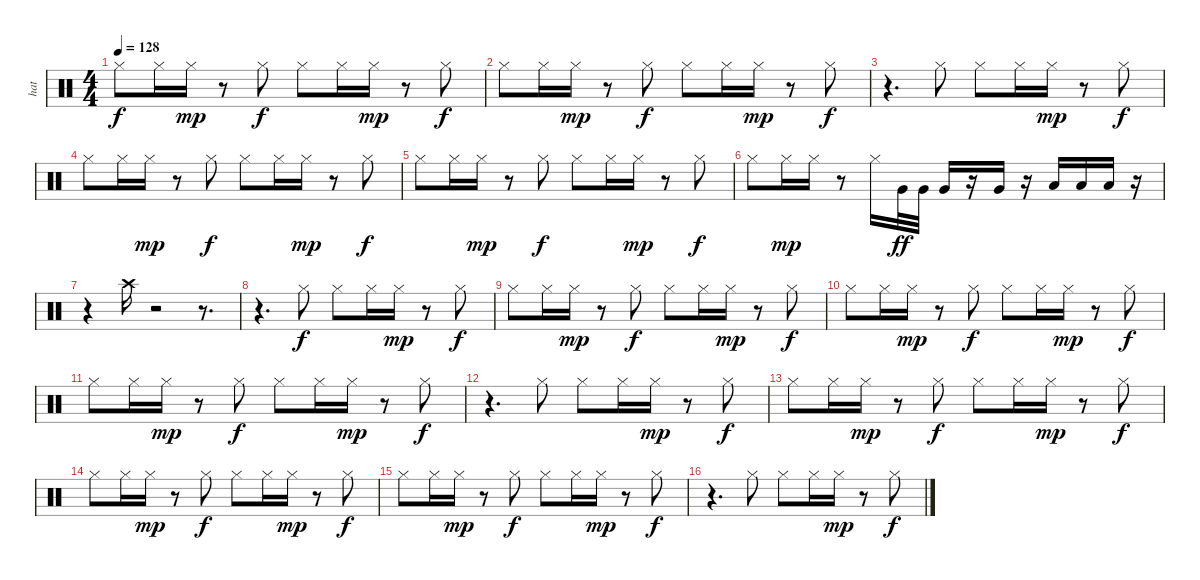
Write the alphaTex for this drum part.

\track ("hat" "hat") {instrument percussion}
\staff {score}
\articulation defaults
\ts (4 4)
\tempo 128
\clef neutral
\ks c "Hi-Hat (closed)".8{dy f} "Hi-Hat (closed)".16 "Hi-Hat (closed)".16{dy mp}
r.8 "Hi-Hat (closed)".8{dy f} "Hi-Hat (closed)".8 "Hi-Hat (closed)".16 "Hi-Hat (closed)".16{dy mp} r.8 "Hi-Hat (closed)".8{dy f} |
"Hi-Hat (closed)".8 "Hi-Hat (closed)".16 "Hi-Hat (closed)".16{dy mp} r.8 "Hi-Hat (closed)".8{dy f} "Hi-Hat (closed)".8 "Hi-Hat (closed)".16 "Hi-Hat (closed)".16{dy mp} r.8 "Hi-Hat (closed)".8{dy f} |
r.4{d} "Hi-Hat (closed)".8 "Hi-Hat (closed)".8 "Hi-Hat (closed)".16 "Hi-Hat (closed)".16{dy mp} r.8 "Hi-Hat (closed)".8{dy f} |
"Hi-Hat (closed)".8 "Hi-Hat (closed)".16 "Hi-Hat (closed)".16{dy mp} r.8 "Hi-Hat (closed)".8{dy f} "Hi-Hat (closed)".8 "Hi-Hat (closed)".16 "Hi-Hat (closed)".16{dy mp} r.8 "Hi-Hat (closed)".8{dy f} |
"Hi-Hat (closed)".8 "Hi-Hat (closed)".16 "Hi-Hat (closed)".16{dy mp} r.8 "Hi-Hat (closed)".8{dy f} "Hi-Hat (closed)".8 "Hi-Hat (closed)".16 "Hi-Hat (closed)".16{dy mp} r.8 "Hi-Hat (closed)".8{dy f} |
"Hi-Hat (closed)".8 "Hi-Hat (closed)".16{dy mp} "Hi-Hat (closed)".16 r.8 "Hi-Hat (closed)".16 "Very Low Tom (hit)".32{dy ff} "Very Low Tom (hit)".32 "Very Low Tom (hit)".16 r.16 "Very Low Tom (hit)".16 r.16 "Low Tom (hit)".16 "Low Tom (hit)".16 "Low Tom (hit)".16 r.16 |
r.4 "Crash high (hit)".16 r.2 r.8{d} |
r.4{d} "Hi-Hat (closed)".8{dy f} "Hi-Hat (closed)".8 "Hi-Hat (closed)".16 "Hi-Hat (closed)".16{dy mp} r.8 "Hi-Hat (closed)".8{dy f} |
"Hi-Hat (closed)".8 "Hi-Hat (closed)".16 "Hi-Hat (closed)".16{dy mp} r.8 "Hi-Hat (closed)".8{dy f} "Hi-Hat (closed)".8 "Hi-Hat (closed)".16 "Hi-Hat (closed)".16{dy mp} r.8 "Hi-Hat (closed)".8{dy f} |
"Hi-Hat (closed)".8 "Hi-Hat (closed)".16 "Hi-Hat (closed)".16{dy mp} r.8 "Hi-Hat (closed)".8{dy f} "Hi-Hat (closed)".8 "Hi-Hat (closed)".16 "Hi-Hat (closed)".16{dy mp} r.8 "Hi-Hat (closed)".8{dy f} |
"Hi-Hat (closed)".8 "Hi-Hat (closed)".16 "Hi-Hat (closed)".16{dy mp} r.8 "Hi-Hat (closed)".8{dy f} "Hi-Hat (closed)".8 "Hi-Hat (closed)".16 "Hi-Hat (closed)".16{dy mp} r.8 "Hi-Hat (closed)".8{dy f} |
r.4{d} "Hi-Hat (closed)".8 "Hi-Hat (closed)".8 "Hi-Hat (closed)".16 "Hi-Hat (closed)".16{dy mp} r.8 "Hi-Hat (closed)".8{dy f} |
"Hi-Hat (closed)".8 "Hi-Hat (closed)".16 "Hi-Hat (closed)".16{dy mp} r.8 "Hi-Hat (closed)".8{dy f} "Hi-Hat (closed)".8 "Hi-Hat (closed)".16 "Hi-Hat (closed)".16{dy mp} r.8 "Hi-Hat (closed)".8{dy f} |
"Hi-Hat (closed)".8 "Hi-Hat (closed)".16 "Hi-Hat (closed)".16{dy mp} r.8 "Hi-Hat (closed)".8{dy f} "Hi-Hat (closed)".8 "Hi-Hat (closed)".16 "Hi-Hat (closed)".16{dy mp} r.8 "Hi-Hat (closed)".8{dy f} |
"Hi-Hat (closed)".8 "Hi-Hat (closed)".16 "Hi-Hat (closed)".16{dy mp} r.8 "Hi-Hat (closed)".8{dy f} "Hi-Hat (closed)".8 "Hi-Hat (closed)".16 "Hi-Hat (closed)".16{dy mp} r.8 "Hi-Hat (closed)".8{dy f} |
r.4{d} "Hi-Hat (closed)".8 "Hi-Hat (closed)".8 "Hi-Hat (closed)".16 "Hi-Hat (closed)".16{dy mp} r.8 "Hi-Hat (closed)".8{dy f}
